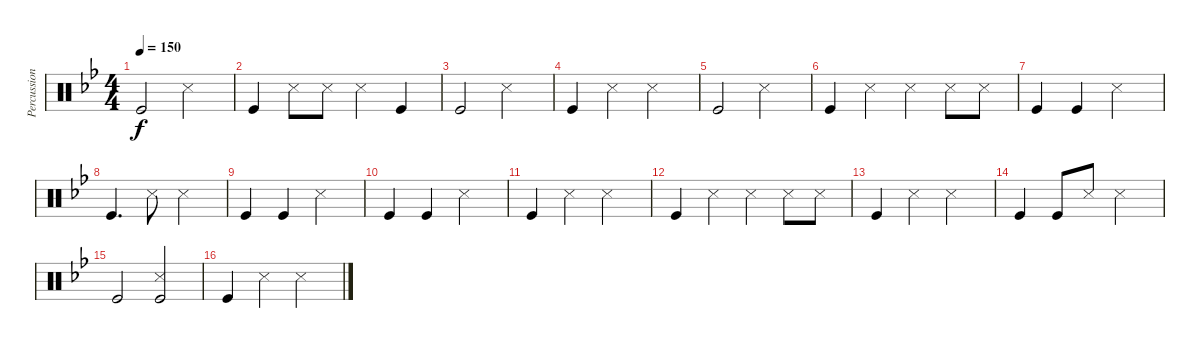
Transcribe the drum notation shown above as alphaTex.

\track ("Percussion" "Percussion") {instrument percussion}
\staff {score}
\articulation defaults
\ts (4 4)
\tempo 150
\clef neutral
\ks gminor "Kick (hit)".2{dy f volume 10} "Snare (side stick) 3".2
|
"Kick (hit)".4 "Snare (side stick) 3".8 "Snare (side stick) 3".8 "Snare (side stick) 3".4 "Kick (hit)".4 |
"Kick (hit)".2 "Snare (side stick) 3".2 |
"Kick (hit)".4 "Snare (side stick) 3".4 "Snare (side stick) 3".2 |
"Kick (hit)".2{volume 7} "Snare (side stick) 3".2 |
"Kick (hit)".4 "Snare (side stick) 3".4 "Snare (side stick) 3".4 "Snare (side stick) 3".8 "Snare (side stick) 3".8 |
"Kick (hit)".4 "Kick (hit)".4 "Snare (side stick) 3".2 |
"Kick (hit)".4{d} "Snare (side stick) 3".8 "Snare (side stick) 3".2 |
"Kick (hit)".4{volume 5} "Kick (hit)".4 "Snare (side stick) 3".2 |
"Kick (hit)".4 "Kick (hit)".4 "Snare (side stick) 3".2 |
"Kick (hit)".4 "Snare (side stick) 3".4 "Snare (side stick) 3".2 |
"Kick (hit)".4 "Snare (side stick) 3".4 "Snare (side stick) 3".4 "Snare (side stick) 3".8 "Snare (side stick) 3".8 |
"Kick (hit)".4{volume 3} "Snare (side stick) 3".4 "Snare (side stick) 3".2 |
"Kick (hit)".4 "Kick (hit)".8 "Snare (side stick) 3".8 "Snare (side stick) 3".2 |
"Kick (hit)".2 ("Snare (side stick) 3" "Kick (hit)").2 |
"Kick (hit)".4 "Snare (side stick) 3".4 "Snare (side stick) 3".2
